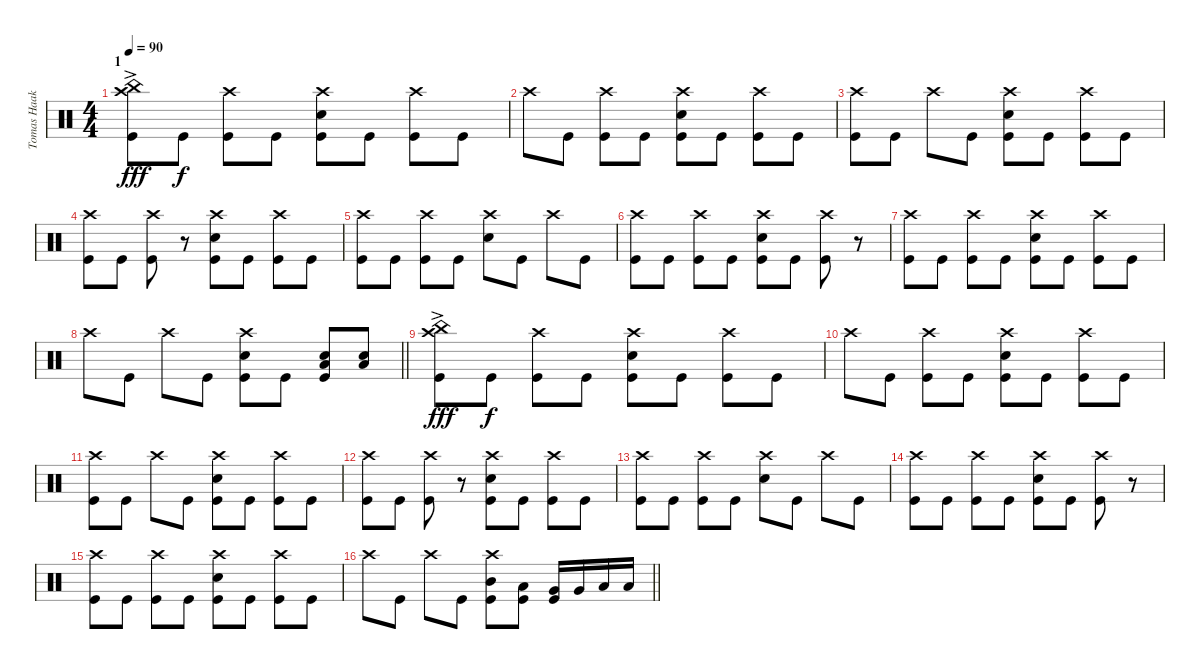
\track ("Tomas Haake" "Tomas Haak") {instrument percussion}
\staff {score}
\articulation defaults
\ts (4 4)
\section ("" "1")
\tempo 90
\clef neutral
\ks c
("Crash high (hit)" "China (hit)"{ac} "Kick (hit)").8{dy fff} "Kick (hit)".8{dy f} ("Crash high (hit)" "Kick (hit)").8 "Kick (hit)".8 ("Crash high (hit)" "Electric Snare (hit)" "Kick (hit)").8 "Kick (hit)".8 ("Crash high (hit)" "Kick (hit)").8 "Kick (hit)".8 |
"Crash high (hit)".8 "Kick (hit)".8 ("Crash high (hit)" "Kick (hit)").8 "Kick (hit)".8 ("Crash high (hit)" "Electric Snare (hit)" "Kick (hit)").8 "Kick (hit)".8 ("Crash high (hit)" "Kick (hit)").8 "Kick (hit)".8 |
("Crash high (hit)" "Kick (hit)").8 "Kick (hit)".8 "Crash high (hit)".8 "Kick (hit)".8 ("Crash high (hit)" "Electric Snare (hit)" "Kick (hit)").8 "Kick (hit)".8 ("Crash high (hit)" "Kick (hit)").8 "Kick (hit)".8 |
("Crash high (hit)" "Kick (hit)").8 "Kick (hit)".8 ("Crash high (hit)" "Kick (hit)").8 r.8 ("Crash high (hit)" "Electric Snare (hit)" "Kick (hit)").8 "Kick (hit)".8 ("Crash high (hit)" "Kick (hit)").8 "Kick (hit)".8 |
("Crash high (hit)" "Kick (hit)").8 "Kick (hit)".8 ("Crash high (hit)" "Kick (hit)").8 "Kick (hit)".8 ("Crash high (hit)" "Electric Snare (hit)").8 "Kick (hit)".8 "Crash high (hit)".8 "Kick (hit)".8 |
("Crash high (hit)" "Kick (hit)").8 "Kick (hit)".8 ("Crash high (hit)" "Kick (hit)").8 "Kick (hit)".8 ("Crash high (hit)" "Electric Snare (hit)" "Kick (hit)").8 "Kick (hit)".8 ("Crash high (hit)" "Kick (hit)").8 r.8 |
("Crash high (hit)" "Kick (hit)").8 "Kick (hit)".8 ("Crash high (hit)" "Kick (hit)").8 "Kick (hit)".8 ("Crash high (hit)" "Electric Snare (hit)" "Kick (hit)").8 "Kick (hit)".8 ("Crash high (hit)" "Kick (hit)").8 "Kick (hit)".8 |
\barLineRight lightlight "Crash high (hit)".8 "Kick (hit)".8 "Crash high (hit)".8 "Kick (hit)".8
("Crash high (hit)" "Electric Snare (hit)" "Kick (hit)").8 "Kick (hit)".8 ("Electric Snare (hit)" "Low Floor Tom (hit)" "Kick (hit)").8 ("Electric Snare (hit)" "Low Floor Tom (hit)").8 |
\section ("" "")
("Crash high (hit)" "China (hit)"{ac} "Kick (hit)").8{dy fff} "Kick (hit)".8{dy f} ("Crash high (hit)" "Kick (hit)").8 "Kick (hit)".8 ("Crash high (hit)" "Electric Snare (hit)" "Kick (hit)").8 "Kick (hit)".8 ("Crash high (hit)" "Kick (hit)").8 "Kick (hit)".8 |
"Crash high (hit)".8 "Kick (hit)".8 ("Crash high (hit)" "Kick (hit)").8 "Kick (hit)".8 ("Crash high (hit)" "Electric Snare (hit)" "Kick (hit)").8 "Kick (hit)".8 ("Crash high (hit)" "Kick (hit)").8 "Kick (hit)".8 |
("Crash high (hit)" "Kick (hit)").8 "Kick (hit)".8 "Crash high (hit)".8 "Kick (hit)".8 ("Crash high (hit)" "Electric Snare (hit)" "Kick (hit)").8 "Kick (hit)".8 ("Crash high (hit)" "Kick (hit)").8 "Kick (hit)".8 |
("Crash high (hit)" "Kick (hit)").8 "Kick (hit)".8 ("Crash high (hit)" "Kick (hit)").8 r.8 ("Crash high (hit)" "Electric Snare (hit)" "Kick (hit)").8 "Kick (hit)".8 ("Crash high (hit)" "Kick (hit)").8 "Kick (hit)".8 |
("Crash high (hit)" "Kick (hit)").8 "Kick (hit)".8 ("Crash high (hit)" "Kick (hit)").8 "Kick (hit)".8 ("Crash high (hit)" "Electric Snare (hit)").8 "Kick (hit)".8 "Crash high (hit)".8 "Kick (hit)".8 |
("Crash high (hit)" "Kick (hit)").8 "Kick (hit)".8 ("Crash high (hit)" "Kick (hit)").8 "Kick (hit)".8 ("Crash high (hit)" "Electric Snare (hit)" "Kick (hit)").8 "Kick (hit)".8 ("Crash high (hit)" "Kick (hit)").8 r.8 |
("Crash high (hit)" "Kick (hit)").8 "Kick (hit)".8 ("Crash high (hit)" "Kick (hit)").8 "Kick (hit)".8 ("Crash high (hit)" "Electric Snare (hit)" "Kick (hit)").8 "Kick (hit)".8 ("Crash high (hit)" "Kick (hit)").8 "Kick (hit)".8 |
\barLineRight lightlight "Crash high (hit)".8 "Kick (hit)".8 "Crash high (hit)".8 "Kick (hit)".8
("Crash high (hit)" "Mid Tom (hit)" "Kick (hit)").8 ("Low Tom (hit)" "Kick (hit)").8 ("Very Low Tom (hit)" "Kick (hit)").16 "Very Low Tom (hit)".16 "Low Floor Tom (hit)".16 "Low Floor Tom (hit)".16
